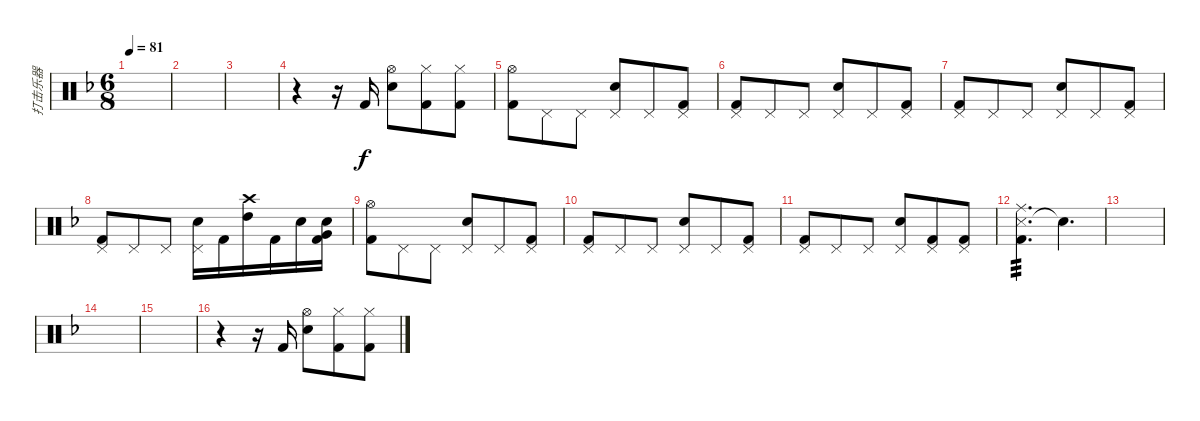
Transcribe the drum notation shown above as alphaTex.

\track ("打击乐器" "打击乐器") {instrument percussion}
\staff {score}
\articulation defaults
\ts (6 8)
\tempo 81
\clef neutral
\ks f
|
|
|
r.4 r.16 "Kick (hit) 2".16 ("Hi-Hat (open)" "Snare (hit) 2").8 ("Hi-Hat (closed)" "Kick (hit) 2").8 ("Hi-Hat (closed)" "Kick (hit) 2").8 |
("Hi-Hat (open)" "Kick (hit) 2").8 "Pedal Hi-Hat (hit)".8 "Pedal Hi-Hat (hit)".8 ("Pedal Hi-Hat (hit)" "Snare (hit) 2").8 "Pedal Hi-Hat (hit)".8 ("Pedal Hi-Hat (hit)" "Kick (hit) 2").8 |
("Pedal Hi-Hat (hit)" "Kick (hit) 2").8 "Pedal Hi-Hat (hit)".8 "Pedal Hi-Hat (hit)".8 ("Pedal Hi-Hat (hit)" "Snare (hit) 2").8 "Pedal Hi-Hat (hit)".8 ("Pedal Hi-Hat (hit)" "Kick (hit) 2").8 |
("Pedal Hi-Hat (hit)" "Kick (hit) 2").8 "Pedal Hi-Hat (hit)".8 "Pedal Hi-Hat (hit)".8 ("Pedal Hi-Hat (hit)" "Snare (hit) 2").8 "Pedal Hi-Hat (hit)".8 ("Pedal Hi-Hat (hit)" "Kick (hit) 2").8 |
("Pedal Hi-Hat (hit)" "Kick (hit) 2").8 "Pedal Hi-Hat (hit)".8 "Pedal Hi-Hat (hit)".8 ("Pedal Hi-Hat (hit)" "Snare (hit) 2").16 "Kick (hit) 2".16 ("Crash high (hit)" "High Tom (hit)").16 "Kick (hit) 2".16 "Snare (hit) 2".16 ("Snare (hit) 2" "Very Low Tom (hit)" "Kick (hit) 2").16 |
("Hi-Hat (open)" "Kick (hit) 2").8 "Pedal Hi-Hat (hit)".8 "Pedal Hi-Hat (hit)".8 ("Pedal Hi-Hat (hit)" "Snare (hit) 2").8 "Pedal Hi-Hat (hit)".8 ("Pedal Hi-Hat (hit)" "Kick (hit) 2").8 |
("Pedal Hi-Hat (hit)" "Kick (hit) 2").8 "Pedal Hi-Hat (hit)".8 "Pedal Hi-Hat (hit)".8 ("Pedal Hi-Hat (hit)" "Snare (hit) 2").8 "Pedal Hi-Hat (hit)".8 ("Pedal Hi-Hat (hit)" "Kick (hit) 2").8 |
("Pedal Hi-Hat (hit)" "Kick (hit) 2").8 "Pedal Hi-Hat (hit)".8 "Pedal Hi-Hat (hit)".8 ("Pedal Hi-Hat (hit)" "Snare (hit) 2").8 ("Pedal Hi-Hat (hit)" "Kick (hit) 2").8 ("Pedal Hi-Hat (hit)" "Kick (hit) 2").8 |
("Snare (side stick) 3" "Ride (middle)" "Kick (hit) 2").4{d tp 3} "Snare (hit)"{t}.4{d} |
|
|
|
r.4 r.16 "Kick (hit) 2".16 ("Hi-Hat (open)" "Snare (hit) 2").8 ("Hi-Hat (closed)" "Kick (hit) 2").8 ("Hi-Hat (closed)" "Kick (hit) 2").8
